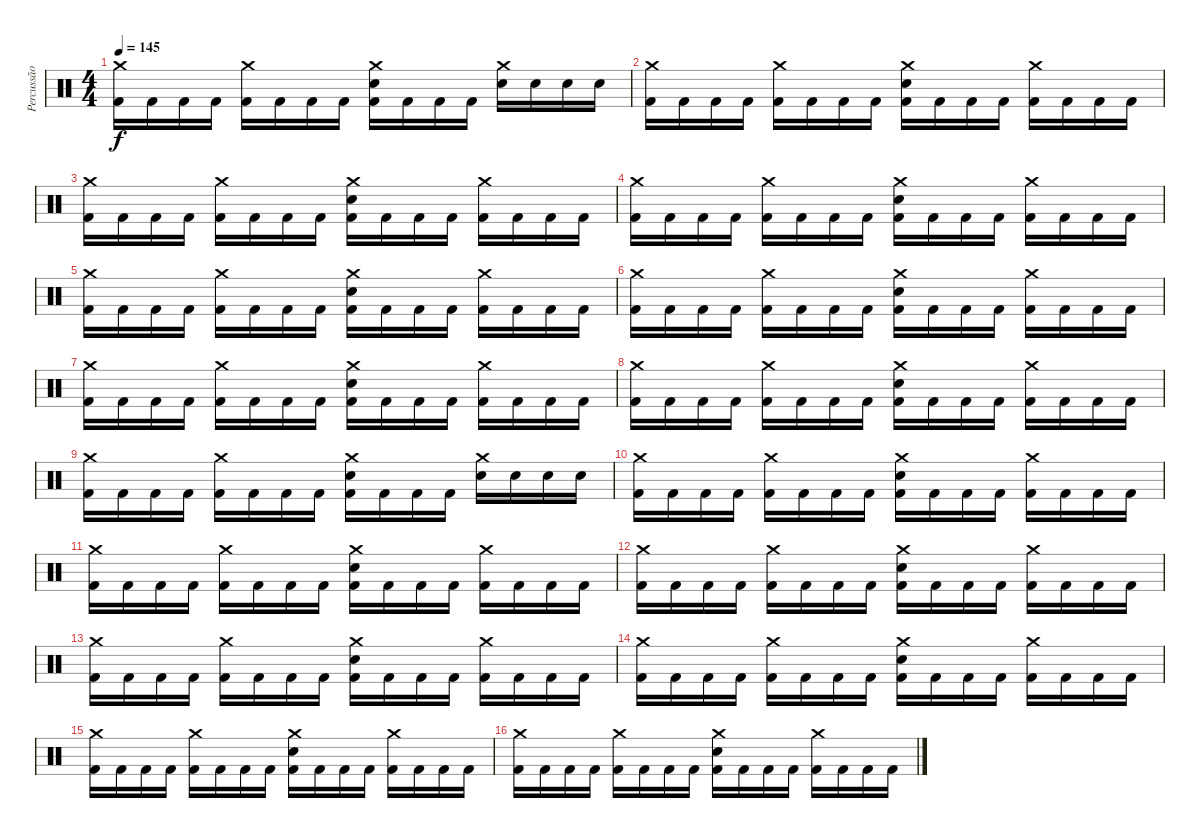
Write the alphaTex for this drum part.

\track ("Percussão" "Percussão") {instrument percussion}
\staff {score}
\articulation defaults
\ts (4 4)
\tempo 145
\clef neutral
\ks c
("Crash medium (hit)" "Kick (hit) 2").16{dy f} "Kick (hit) 2".16 "Kick (hit) 2".16 "Kick (hit) 2".16 ("Crash medium (hit)" "Kick (hit) 2").16 "Kick (hit) 2".16 "Kick (hit) 2".16 "Kick (hit) 2".16 ("Crash medium (hit)" "Electric Snare (hit)" "Kick (hit) 2").16 "Kick (hit) 2".16 "Kick (hit) 2".16 "Kick (hit) 2".16 ("Crash medium (hit)" "Snare (hit)").16 "Snare (hit)".16 "Snare (hit)".16 "Snare (hit)".16 |
("Crash medium (hit)" "Kick (hit) 2").16 "Kick (hit) 2".16 "Kick (hit) 2".16 "Kick (hit) 2".16 ("Crash medium (hit)" "Kick (hit) 2").16 "Kick (hit) 2".16 "Kick (hit) 2".16 "Kick (hit) 2".16 ("Crash medium (hit)" "Electric Snare (hit)" "Kick (hit) 2").16 "Kick (hit) 2".16 "Kick (hit) 2".16 "Kick (hit) 2".16 ("Crash medium (hit)" "Kick (hit) 2").16 "Kick (hit) 2".16 "Kick (hit) 2".16 "Kick (hit) 2".16 |
("Crash medium (hit)" "Kick (hit) 2").16 "Kick (hit) 2".16 "Kick (hit) 2".16 "Kick (hit) 2".16 ("Crash medium (hit)" "Kick (hit) 2").16 "Kick (hit) 2".16 "Kick (hit) 2".16 "Kick (hit) 2".16 ("Crash medium (hit)" "Electric Snare (hit)" "Kick (hit) 2").16 "Kick (hit) 2".16 "Kick (hit) 2".16 "Kick (hit) 2".16 ("Crash medium (hit)" "Kick (hit) 2").16 "Kick (hit) 2".16 "Kick (hit) 2".16 "Kick (hit) 2".16 |
("Crash medium (hit)" "Kick (hit) 2").16 "Kick (hit) 2".16 "Kick (hit) 2".16 "Kick (hit) 2".16 ("Crash medium (hit)" "Kick (hit) 2").16 "Kick (hit) 2".16 "Kick (hit) 2".16 "Kick (hit) 2".16 ("Crash medium (hit)" "Electric Snare (hit)" "Kick (hit) 2").16 "Kick (hit) 2".16 "Kick (hit) 2".16 "Kick (hit) 2".16 ("Crash medium (hit)" "Kick (hit) 2").16 "Kick (hit) 2".16 "Kick (hit) 2".16 "Kick (hit) 2".16 |
("Crash medium (hit)" "Kick (hit) 2").16 "Kick (hit) 2".16 "Kick (hit) 2".16 "Kick (hit) 2".16 ("Crash medium (hit)" "Kick (hit) 2").16 "Kick (hit) 2".16 "Kick (hit) 2".16 "Kick (hit) 2".16 ("Crash medium (hit)" "Electric Snare (hit)" "Kick (hit) 2").16 "Kick (hit) 2".16 "Kick (hit) 2".16 "Kick (hit) 2".16 ("Crash medium (hit)" "Kick (hit) 2").16 "Kick (hit) 2".16 "Kick (hit) 2".16 "Kick (hit) 2".16 |
("Crash medium (hit)" "Kick (hit) 2").16 "Kick (hit) 2".16 "Kick (hit) 2".16 "Kick (hit) 2".16 ("Crash medium (hit)" "Kick (hit) 2").16 "Kick (hit) 2".16 "Kick (hit) 2".16 "Kick (hit) 2".16 ("Crash medium (hit)" "Electric Snare (hit)" "Kick (hit) 2").16 "Kick (hit) 2".16 "Kick (hit) 2".16 "Kick (hit) 2".16 ("Crash medium (hit)" "Kick (hit) 2").16 "Kick (hit) 2".16 "Kick (hit) 2".16 "Kick (hit) 2".16 |
("Crash medium (hit)" "Kick (hit) 2").16 "Kick (hit) 2".16 "Kick (hit) 2".16 "Kick (hit) 2".16 ("Crash medium (hit)" "Kick (hit) 2").16 "Kick (hit) 2".16 "Kick (hit) 2".16 "Kick (hit) 2".16 ("Crash medium (hit)" "Electric Snare (hit)" "Kick (hit) 2").16 "Kick (hit) 2".16 "Kick (hit) 2".16 "Kick (hit) 2".16 ("Crash medium (hit)" "Kick (hit) 2").16 "Kick (hit) 2".16 "Kick (hit) 2".16 "Kick (hit) 2".16 |
("Crash medium (hit)" "Kick (hit) 2").16 "Kick (hit) 2".16 "Kick (hit) 2".16 "Kick (hit) 2".16 ("Crash medium (hit)" "Kick (hit) 2").16 "Kick (hit) 2".16 "Kick (hit) 2".16 "Kick (hit) 2".16 ("Crash medium (hit)" "Electric Snare (hit)" "Kick (hit) 2").16 "Kick (hit) 2".16 "Kick (hit) 2".16 "Kick (hit) 2".16 ("Crash medium (hit)" "Kick (hit) 2").16 "Kick (hit) 2".16 "Kick (hit) 2".16 "Kick (hit) 2".16 |
("Crash medium (hit)" "Kick (hit) 2").16 "Kick (hit) 2".16 "Kick (hit) 2".16 "Kick (hit) 2".16 ("Crash medium (hit)" "Kick (hit) 2").16 "Kick (hit) 2".16 "Kick (hit) 2".16 "Kick (hit) 2".16 ("Crash medium (hit)" "Electric Snare (hit)" "Kick (hit) 2").16 "Kick (hit) 2".16 "Kick (hit) 2".16 "Kick (hit) 2".16 ("Crash medium (hit)" "Snare (hit)").16 "Snare (hit)".16 "Snare (hit)".16 "Snare (hit)".16 |
("Crash medium (hit)" "Kick (hit) 2").16 "Kick (hit) 2".16 "Kick (hit) 2".16 "Kick (hit) 2".16 ("Crash medium (hit)" "Kick (hit) 2").16 "Kick (hit) 2".16 "Kick (hit) 2".16 "Kick (hit) 2".16 ("Crash medium (hit)" "Electric Snare (hit)" "Kick (hit) 2").16 "Kick (hit) 2".16 "Kick (hit) 2".16 "Kick (hit) 2".16 ("Crash medium (hit)" "Kick (hit) 2").16 "Kick (hit) 2".16 "Kick (hit) 2".16 "Kick (hit) 2".16 |
("Crash medium (hit)" "Kick (hit) 2").16 "Kick (hit) 2".16 "Kick (hit) 2".16 "Kick (hit) 2".16 ("Crash medium (hit)" "Kick (hit) 2").16 "Kick (hit) 2".16 "Kick (hit) 2".16 "Kick (hit) 2".16 ("Crash medium (hit)" "Electric Snare (hit)" "Kick (hit) 2").16 "Kick (hit) 2".16 "Kick (hit) 2".16 "Kick (hit) 2".16 ("Crash medium (hit)" "Kick (hit) 2").16 "Kick (hit) 2".16 "Kick (hit) 2".16 "Kick (hit) 2".16 |
("Crash medium (hit)" "Kick (hit) 2").16 "Kick (hit) 2".16 "Kick (hit) 2".16 "Kick (hit) 2".16 ("Crash medium (hit)" "Kick (hit) 2").16 "Kick (hit) 2".16 "Kick (hit) 2".16 "Kick (hit) 2".16 ("Crash medium (hit)" "Electric Snare (hit)" "Kick (hit) 2").16 "Kick (hit) 2".16 "Kick (hit) 2".16 "Kick (hit) 2".16 ("Crash medium (hit)" "Kick (hit) 2").16 "Kick (hit) 2".16 "Kick (hit) 2".16 "Kick (hit) 2".16 |
("Crash medium (hit)" "Kick (hit) 2").16 "Kick (hit) 2".16 "Kick (hit) 2".16 "Kick (hit) 2".16 ("Crash medium (hit)" "Kick (hit) 2").16 "Kick (hit) 2".16 "Kick (hit) 2".16 "Kick (hit) 2".16 ("Crash medium (hit)" "Electric Snare (hit)" "Kick (hit) 2").16 "Kick (hit) 2".16 "Kick (hit) 2".16 "Kick (hit) 2".16 ("Crash medium (hit)" "Kick (hit) 2").16 "Kick (hit) 2".16 "Kick (hit) 2".16 "Kick (hit) 2".16 |
("Crash medium (hit)" "Kick (hit) 2").16 "Kick (hit) 2".16 "Kick (hit) 2".16 "Kick (hit) 2".16 ("Crash medium (hit)" "Kick (hit) 2").16 "Kick (hit) 2".16 "Kick (hit) 2".16 "Kick (hit) 2".16 ("Crash medium (hit)" "Electric Snare (hit)" "Kick (hit) 2").16 "Kick (hit) 2".16 "Kick (hit) 2".16 "Kick (hit) 2".16 ("Crash medium (hit)" "Kick (hit) 2").16 "Kick (hit) 2".16 "Kick (hit) 2".16 "Kick (hit) 2".16 |
("Crash medium (hit)" "Kick (hit) 2").16 "Kick (hit) 2".16 "Kick (hit) 2".16 "Kick (hit) 2".16 ("Crash medium (hit)" "Kick (hit) 2").16 "Kick (hit) 2".16 "Kick (hit) 2".16 "Kick (hit) 2".16 ("Crash medium (hit)" "Electric Snare (hit)" "Kick (hit) 2").16 "Kick (hit) 2".16 "Kick (hit) 2".16 "Kick (hit) 2".16 ("Crash medium (hit)" "Kick (hit) 2").16 "Kick (hit) 2".16 "Kick (hit) 2".16 "Kick (hit) 2".16 |
("Crash medium (hit)" "Kick (hit) 2").16 "Kick (hit) 2".16 "Kick (hit) 2".16 "Kick (hit) 2".16 ("Crash medium (hit)" "Kick (hit) 2").16 "Kick (hit) 2".16 "Kick (hit) 2".16 "Kick (hit) 2".16 ("Crash medium (hit)" "Electric Snare (hit)" "Kick (hit) 2").16 "Kick (hit) 2".16 "Kick (hit) 2".16 "Kick (hit) 2".16 ("Crash medium (hit)" "Kick (hit) 2").16 "Kick (hit) 2".16 "Kick (hit) 2".16 "Kick (hit) 2".16
